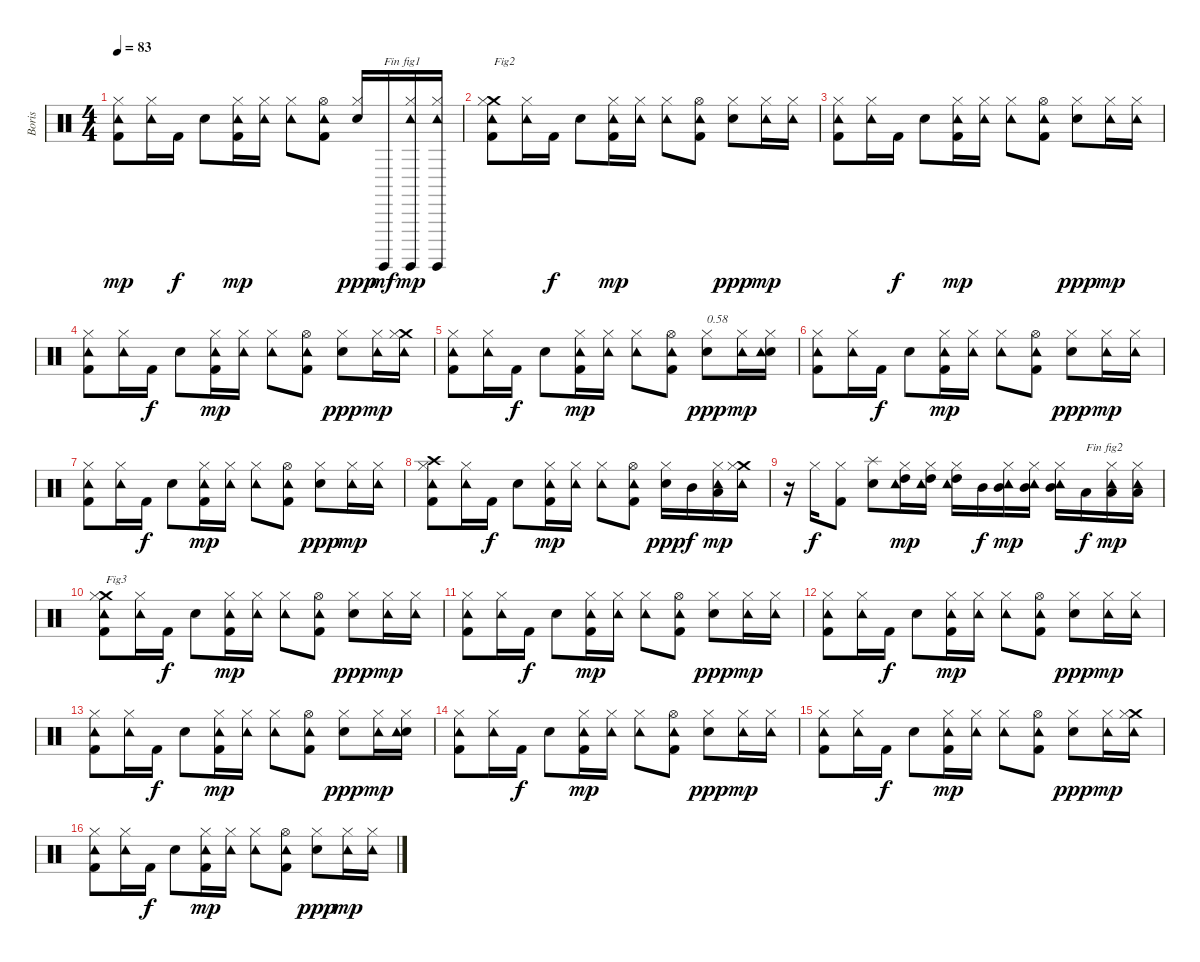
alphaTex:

\track ("Boris" "Boris") {instrument percussion}
\staff {score}
\articulation defaults
\ts (4 4)
\tempo 83
\clef neutral
\ks c
("Kick (hit) 2" "Tambourine (hit)" "Hi-Hat (closed)").8{dy mp} ("Tambourine (hit)" "Hi-Hat (closed)").16 "Kick (hit) 2".16{dy f} "Electric Snare (hit)".8 ("Kick (hit) 2" "Tambourine (hit)" "Hi-Hat (closed)").16{dy mp} ("Tambourine (hit)" "Hi-Hat (closed)").16 ("Tambourine (hit)" "Hi-Hat (closed)").8 ("Kick (hit) 2" "Tambourine (hit)" "Hi-Hat (open)").8 ("Electric Snare (hit)" "Hi-Hat (closed)").16{dy ppp} "Surdo (hit)".16{txt "Fin fig1" dy mf} ("Surdo (hit)" "Tambourine (hit)" "Hi-Hat (closed)").16{dy mp} ("Surdo (hit)" "Tambourine (hit)" "Hi-Hat (closed)").16 |
("Kick (hit) 2" "Crash medium (hit)" "Tambourine (hit)" "Hi-Hat (closed)").8{txt "Fig2"} ("Tambourine (hit)" "Hi-Hat (closed)").16 "Kick (hit) 2".16{dy f} "Electric Snare (hit)".8 ("Kick (hit) 2" "Tambourine (hit)" "Hi-Hat (closed)").16{dy mp} ("Tambourine (hit)" "Hi-Hat (closed)").16 ("Tambourine (hit)" "Hi-Hat (closed)").8 ("Kick (hit) 2" "Tambourine (hit)" "Hi-Hat (open)").8 ("Electric Snare (hit)" "Hi-Hat (closed)").8{dy ppp} ("Tambourine (hit)" "Hi-Hat (closed)").16{dy mp} ("Tambourine (hit)" "Hi-Hat (closed)").16 |
("Kick (hit) 2" "Tambourine (hit)" "Hi-Hat (closed)").8 ("Tambourine (hit)" "Hi-Hat (closed)").16 "Kick (hit) 2".16{dy f} "Electric Snare (hit)".8 ("Kick (hit) 2" "Tambourine (hit)" "Hi-Hat (closed)").16{dy mp} ("Tambourine (hit)" "Hi-Hat (closed)").16 ("Tambourine (hit)" "Hi-Hat (closed)").8 ("Kick (hit) 2" "Tambourine (hit)" "Hi-Hat (open)").8 ("Electric Snare (hit)" "Hi-Hat (closed)").8{dy ppp} ("Tambourine (hit)" "Hi-Hat (closed)").16{dy mp} ("Tambourine (hit)" "Hi-Hat (closed)").16 |
("Kick (hit) 2" "Tambourine (hit)" "Hi-Hat (closed)").8 ("Tambourine (hit)" "Hi-Hat (closed)").16 "Kick (hit) 2".16{dy f} "Electric Snare (hit)".8 ("Kick (hit) 2" "Tambourine (hit)" "Hi-Hat (closed)").16{dy mp} ("Tambourine (hit)" "Hi-Hat (closed)").16 ("Tambourine (hit)" "Hi-Hat (closed)").8 ("Kick (hit) 2" "Tambourine (hit)" "Hi-Hat (open)").8 ("Electric Snare (hit)" "Hi-Hat (closed)").8{dy ppp} ("Tambourine (hit)" "Hi-Hat (closed)").16{dy mp} ("Crash medium (hit)" "Tambourine (hit)" "Hi-Hat (closed)").16 |
("Kick (hit) 2" "Tambourine (hit)" "Hi-Hat (closed)").8 ("Tambourine (hit)" "Hi-Hat (closed)").16 "Kick (hit) 2".16{dy f} "Electric Snare (hit)".8 ("Kick (hit) 2" "Tambourine (hit)" "Hi-Hat (closed)").16{dy mp} ("Tambourine (hit)" "Hi-Hat (closed)").16 ("Tambourine (hit)" "Hi-Hat (closed)").8 ("Kick (hit) 2" "Tambourine (hit)" "Hi-Hat (open)").8 ("Electric Snare (hit)" "Hi-Hat (closed)").8{txt "0.58" dy ppp} ("Tambourine (hit)" "Hi-Hat (closed)").16{dy mp} ("Electric Snare (hit)" "Tambourine (hit)" "Hi-Hat (closed)").16 |
("Kick (hit) 2" "Tambourine (hit)" "Hi-Hat (closed)").8 ("Tambourine (hit)" "Hi-Hat (closed)").16 "Kick (hit) 2".16{dy f} "Electric Snare (hit)".8 ("Kick (hit) 2" "Tambourine (hit)" "Hi-Hat (closed)").16{dy mp} ("Tambourine (hit)" "Hi-Hat (closed)").16 ("Tambourine (hit)" "Hi-Hat (closed)").8 ("Kick (hit) 2" "Tambourine (hit)" "Hi-Hat (open)").8 ("Electric Snare (hit)" "Hi-Hat (closed)").8{dy ppp} ("Tambourine (hit)" "Hi-Hat (closed)").16{dy mp} ("Tambourine (hit)" "Hi-Hat (closed)").16 |
("Kick (hit) 2" "Tambourine (hit)" "Hi-Hat (closed)").8 ("Tambourine (hit)" "Hi-Hat (closed)").16 "Kick (hit) 2".16{dy f} "Electric Snare (hit)".8 ("Kick (hit) 2" "Tambourine (hit)" "Hi-Hat (closed)").16{dy mp} ("Tambourine (hit)" "Hi-Hat (closed)").16 ("Tambourine (hit)" "Hi-Hat (closed)").8 ("Kick (hit) 2" "Tambourine (hit)" "Hi-Hat (open)").8 ("Electric Snare (hit)" "Hi-Hat (closed)").8{dy ppp} ("Tambourine (hit)" "Hi-Hat (closed)").16{dy mp} ("Tambourine (hit)" "Hi-Hat (closed)").16 |
("Kick (hit) 2" "Crash high (hit)" "Tambourine (hit)" "Hi-Hat (closed)").8 ("Tambourine (hit)" "Hi-Hat (closed)").16 "Kick (hit) 2".16{dy f} "Electric Snare (hit)".8 ("Kick (hit) 2" "Tambourine (hit)" "Hi-Hat (closed)").16{dy mp} ("Tambourine (hit)" "Hi-Hat (closed)").16 ("Tambourine (hit)" "Hi-Hat (closed)").8 ("Kick (hit) 2" "Tambourine (hit)" "Hi-Hat (open)").8 ("Electric Snare (hit)" "Hi-Hat (closed)").16{dy ppp} "Mid Tom (hit)".16{dy f} ("Low Tom (hit)" "Tambourine (hit)" "Hi-Hat (closed)").16{dy mp} ("Crash medium (hit)" "Tambourine (hit)" "Hi-Hat (closed)").16 |
r.16 "Hi-Hat (closed)".16{dy f} ("Kick (hit) 2" "Hi-Hat (closed)").8 ("Electric Snare (hit)" "Splash (hit)").8 ("High Tom (hit)" "Tambourine (hit)" "Hi-Hat (closed)").16{dy mp} ("High Tom (hit)" "Tambourine (hit)" "Hi-Hat (closed)").16 ("High Tom (hit)" "Tambourine (hit)" "Hi-Hat (closed)").16 "Mid Tom (hit)".16{dy f} ("Mid Tom (hit)" "Tambourine (hit)" "Hi-Hat (closed)").16{dy mp} ("Mid Tom (hit)" "Tambourine (hit)" "Hi-Hat (closed)").16 ("Mid Tom (hit)" "Tambourine (hit)" "Hi-Hat (closed)").16 "Low Tom (hit)".16{txt "Fin fig2" dy f} ("Low Tom (hit)" "Tambourine (hit)" "Hi-Hat (closed)").16{dy mp} ("Low Tom (hit)" "Tambourine (hit)" "Hi-Hat (closed)").16 |
("Kick (hit) 2" "Crash medium (hit)" "Tambourine (hit)" "Hi-Hat (closed)").8{txt "Fig3"} ("Tambourine (hit)" "Hi-Hat (closed)").16 "Kick (hit) 2".16{dy f} "Electric Snare (hit)".8 ("Kick (hit) 2" "Tambourine (hit)" "Hi-Hat (closed)").16{dy mp} ("Tambourine (hit)" "Hi-Hat (closed)").16 ("Tambourine (hit)" "Hi-Hat (closed)").8 ("Kick (hit) 2" "Tambourine (hit)" "Hi-Hat (open)").8 ("Electric Snare (hit)" "Hi-Hat (closed)").8{dy ppp} ("Tambourine (hit)" "Hi-Hat (closed)").16{dy mp} ("Tambourine (hit)" "Hi-Hat (closed)").16 |
("Kick (hit) 2" "Tambourine (hit)" "Hi-Hat (closed)").8 ("Tambourine (hit)" "Hi-Hat (closed)").16 "Kick (hit) 2".16{dy f} "Electric Snare (hit)".8 ("Kick (hit) 2" "Tambourine (hit)" "Hi-Hat (closed)").16{dy mp} ("Tambourine (hit)" "Hi-Hat (closed)").16 ("Tambourine (hit)" "Hi-Hat (closed)").8 ("Kick (hit) 2" "Tambourine (hit)" "Hi-Hat (open)").8 ("Electric Snare (hit)" "Hi-Hat (closed)").8{dy ppp} ("Tambourine (hit)" "Hi-Hat (closed)").16{dy mp} ("Tambourine (hit)" "Hi-Hat (closed)").16 |
("Kick (hit) 2" "Tambourine (hit)" "Hi-Hat (closed)").8 ("Tambourine (hit)" "Hi-Hat (closed)").16 "Kick (hit) 2".16{dy f} "Electric Snare (hit)".8 ("Kick (hit) 2" "Tambourine (hit)" "Hi-Hat (closed)").16{dy mp} ("Tambourine (hit)" "Hi-Hat (closed)").16 ("Tambourine (hit)" "Hi-Hat (closed)").8 ("Kick (hit) 2" "Tambourine (hit)" "Hi-Hat (open)").8 ("Electric Snare (hit)" "Hi-Hat (closed)").8{dy ppp} ("Tambourine (hit)" "Hi-Hat (closed)").16{dy mp} ("Tambourine (hit)" "Hi-Hat (closed)").16 |
("Kick (hit) 2" "Tambourine (hit)" "Hi-Hat (closed)").8 ("Tambourine (hit)" "Hi-Hat (closed)").16 "Kick (hit) 2".16{dy f} "Electric Snare (hit)".8 ("Kick (hit) 2" "Tambourine (hit)" "Hi-Hat (closed)").16{dy mp} ("Tambourine (hit)" "Hi-Hat (closed)").16 ("Tambourine (hit)" "Hi-Hat (closed)").8 ("Kick (hit) 2" "Tambourine (hit)" "Hi-Hat (open)").8 ("Electric Snare (hit)" "Hi-Hat (closed)").8{dy ppp} ("Tambourine (hit)" "Hi-Hat (closed)").16{dy mp} ("Electric Snare (hit)" "Tambourine (hit)" "Hi-Hat (closed)").16 |
("Kick (hit) 2" "Tambourine (hit)" "Hi-Hat (closed)").8 ("Tambourine (hit)" "Hi-Hat (closed)").16 "Kick (hit) 2".16{dy f} "Electric Snare (hit)".8 ("Kick (hit) 2" "Tambourine (hit)" "Hi-Hat (closed)").16{dy mp} ("Tambourine (hit)" "Hi-Hat (closed)").16 ("Tambourine (hit)" "Hi-Hat (closed)").8 ("Kick (hit) 2" "Tambourine (hit)" "Hi-Hat (open)").8 ("Electric Snare (hit)" "Hi-Hat (closed)").8{dy ppp} ("Tambourine (hit)" "Hi-Hat (closed)").16{dy mp} ("Tambourine (hit)" "Hi-Hat (closed)").16 |
("Kick (hit) 2" "Tambourine (hit)" "Hi-Hat (closed)").8 ("Tambourine (hit)" "Hi-Hat (closed)").16 "Kick (hit) 2".16{dy f} "Electric Snare (hit)".8 ("Kick (hit) 2" "Tambourine (hit)" "Hi-Hat (closed)").16{dy mp} ("Tambourine (hit)" "Hi-Hat (closed)").16 ("Tambourine (hit)" "Hi-Hat (closed)").8 ("Kick (hit) 2" "Tambourine (hit)" "Hi-Hat (open)").8 ("Electric Snare (hit)" "Hi-Hat (closed)").8{dy ppp} ("Tambourine (hit)" "Hi-Hat (closed)").16{dy mp} ("Crash medium (hit)" "Tambourine (hit)" "Hi-Hat (closed)").16 |
("Kick (hit) 2" "Tambourine (hit)" "Hi-Hat (closed)").8 ("Tambourine (hit)" "Hi-Hat (closed)").16 "Kick (hit) 2".16{dy f} "Electric Snare (hit)".8 ("Kick (hit) 2" "Tambourine (hit)" "Hi-Hat (closed)").16{dy mp} ("Tambourine (hit)" "Hi-Hat (closed)").16 ("Tambourine (hit)" "Hi-Hat (closed)").8 ("Kick (hit) 2" "Tambourine (hit)" "Hi-Hat (open)").8 ("Electric Snare (hit)" "Hi-Hat (closed)").8{dy ppp} ("Tambourine (hit)" "Hi-Hat (closed)").16{dy mp} ("Tambourine (hit)" "Hi-Hat (closed)").16
